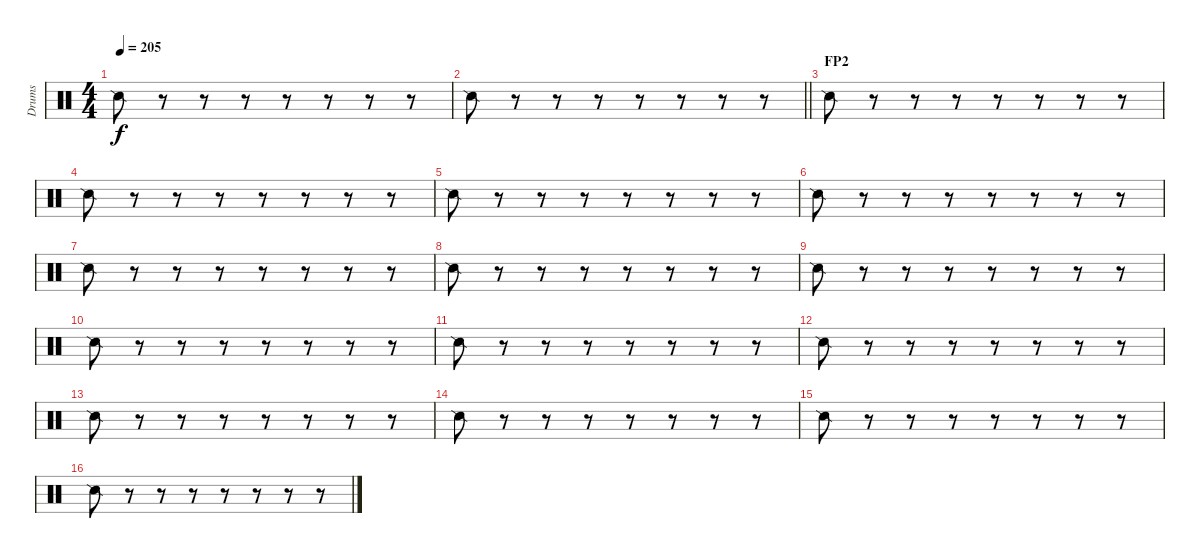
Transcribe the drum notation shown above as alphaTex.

\track ("Drums" "Drums") {instrument percussion}
\staff {score}
\articulation defaults
\ts (4 4)
\tempo 205
\clef neutral
\ks c "Snare (side stick) 2".8{dy f}
r.8 r.8 r.8 r.8 r.8 r.8 r.8 |
\barLineRight lightlight "Snare (side stick) 2".8
r.8 r.8 r.8 r.8 r.8 r.8 r.8 |
\section ("" "FP2")
"Snare (side stick) 2".8 r.8 r.8 r.8 r.8 r.8 r.8 r.8 |
"Snare (side stick) 2".8 r.8 r.8 r.8 r.8 r.8 r.8 r.8 |
"Snare (side stick) 2".8 r.8 r.8 r.8 r.8 r.8 r.8 r.8 |
"Snare (side stick) 2".8 r.8 r.8 r.8 r.8 r.8 r.8 r.8 |
"Snare (side stick) 2".8 r.8 r.8 r.8 r.8 r.8 r.8 r.8 |
"Snare (side stick) 2".8 r.8 r.8 r.8 r.8 r.8 r.8 r.8 |
"Snare (side stick) 2".8 r.8 r.8 r.8 r.8 r.8 r.8 r.8 |
"Snare (side stick) 2".8 r.8 r.8 r.8 r.8 r.8 r.8 r.8 |
"Snare (side stick) 2".8 r.8 r.8 r.8 r.8 r.8 r.8 r.8 |
"Snare (side stick) 2".8 r.8 r.8 r.8 r.8 r.8 r.8 r.8 |
"Snare (side stick) 2".8 r.8 r.8 r.8 r.8 r.8 r.8 r.8 |
"Snare (side stick) 2".8 r.8 r.8 r.8 r.8 r.8 r.8 r.8 |
"Snare (side stick) 2".8 r.8 r.8 r.8 r.8 r.8 r.8 r.8 |
"Snare (side stick) 2".8 r.8 r.8 r.8 r.8 r.8 r.8 r.8
